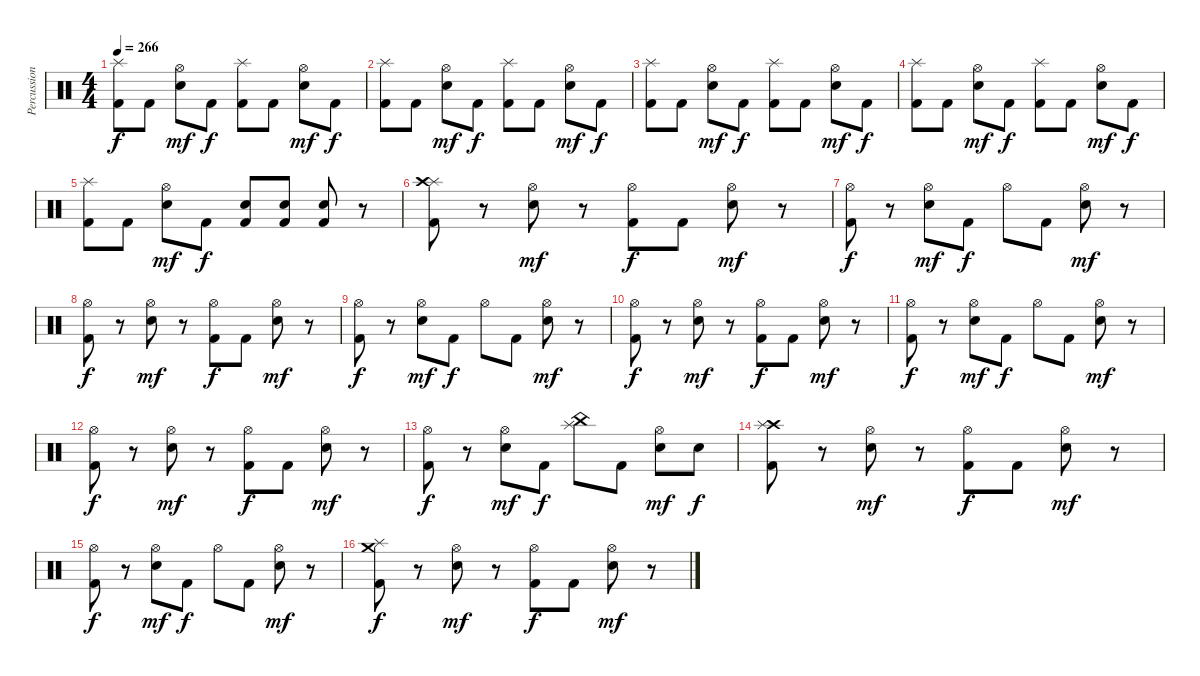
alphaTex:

\track ("Percussion" "Percussion") {instrument percussion}
\staff {score}
\articulation defaults
\ts (4 4)
\tempo 266
\clef neutral
\ks c
("Splash (hit)" "Kick (hit) 2").8{dy f} "Kick (hit) 2".8 ("Hi-Hat (open)" "Snare (hit) 2").8{dy mf} "Kick (hit) 2".8{dy f} ("Kick (hit) 2" "Splash (hit)").8 "Kick (hit) 2".8 ("Hi-Hat (open)" "Snare (hit) 2").8{dy mf} "Kick (hit) 2".8{dy f} |
("Splash (hit)" "Kick (hit) 2").8 "Kick (hit) 2".8 ("Hi-Hat (open)" "Snare (hit) 2").8{dy mf} "Kick (hit) 2".8{dy f} ("Kick (hit) 2" "Splash (hit)").8 "Kick (hit) 2".8 ("Hi-Hat (open)" "Snare (hit) 2").8{dy mf} "Kick (hit) 2".8{dy f} |
("Splash (hit)" "Kick (hit) 2").8 "Kick (hit) 2".8 ("Hi-Hat (open)" "Snare (hit) 2").8{dy mf} "Kick (hit) 2".8{dy f} ("Kick (hit) 2" "Splash (hit)").8 "Kick (hit) 2".8 ("Hi-Hat (open)" "Snare (hit) 2").8{dy mf} "Kick (hit) 2".8{dy f} |
("Splash (hit)" "Kick (hit) 2").8 "Kick (hit) 2".8 ("Hi-Hat (open)" "Snare (hit) 2").8{dy mf} "Kick (hit) 2".8{dy f} ("Kick (hit) 2" "Splash (hit)").8 "Kick (hit) 2".8 ("Hi-Hat (open)" "Snare (hit) 2").8{dy mf} "Kick (hit) 2".8{dy f} |
("Splash (hit)" "Kick (hit) 2").8 "Kick (hit) 2".8 ("Hi-Hat (open)" "Snare (hit) 2").8{dy mf} "Kick (hit) 2".8{dy f} ("Snare (hit) 2" "Kick (hit) 2").8 ("Snare (hit) 2" "Kick (hit) 2").8 ("Kick (hit) 2" "Snare (hit) 2").8 r.8 |
("Splash (hit)" "Crash high (hit)" "Kick (hit) 2").8 r.8 ("Snare (hit) 2" "Hi-Hat (open)").8{dy mf} r.8 ("Hi-Hat (open)" "Kick (hit) 2").8{dy f} "Kick (hit) 2".8 ("Hi-Hat (open)" "Snare (hit) 2").8{dy mf} r.8 |
("Kick (hit) 2" "Hi-Hat (open)").8{dy f} r.8 ("Snare (hit) 2" "Hi-Hat (open)").8{dy mf} "Kick (hit) 2".8{dy f} "Hi-Hat (open)".8 "Kick (hit) 2".8 ("Snare (hit) 2" "Hi-Hat (open)").8{dy mf} r.8 |
("Hi-Hat (open)" "Kick (hit) 2").8{dy f} r.8 ("Snare (hit) 2" "Hi-Hat (open)").8{dy mf} r.8 ("Hi-Hat (open)" "Kick (hit) 2").8{dy f} "Kick (hit) 2".8 ("Hi-Hat (open)" "Snare (hit) 2").8{dy mf} r.8 |
("Kick (hit) 2" "Hi-Hat (open)").8{dy f} r.8 ("Snare (hit) 2" "Hi-Hat (open)").8{dy mf} "Kick (hit) 2".8{dy f} "Hi-Hat (open)".8 "Kick (hit) 2".8 ("Snare (hit) 2" "Hi-Hat (open)").8{dy mf} r.8 |
("Hi-Hat (open)" "Kick (hit) 2").8{dy f} r.8 ("Snare (hit) 2" "Hi-Hat (open)").8{dy mf} r.8 ("Hi-Hat (open)" "Kick (hit) 2").8{dy f} "Kick (hit) 2".8 ("Hi-Hat (open)" "Snare (hit) 2").8{dy mf} r.8 |
("Kick (hit) 2" "Hi-Hat (open)").8{dy f} r.8 ("Snare (hit) 2" "Hi-Hat (open)").8{dy mf} "Kick (hit) 2".8{dy f} "Hi-Hat (open)".8 "Kick (hit) 2".8 ("Snare (hit) 2" "Hi-Hat (open)").8{dy mf} r.8 |
("Hi-Hat (open)" "Kick (hit) 2").8{dy f} r.8 ("Snare (hit) 2" "Hi-Hat (open)").8{dy mf} r.8 ("Hi-Hat (open)" "Kick (hit) 2").8{dy f} "Kick (hit) 2".8 ("Hi-Hat (open)" "Snare (hit) 2").8{dy mf} r.8 |
("Kick (hit) 2" "Hi-Hat (open)").8{dy f} r.8 ("Snare (hit) 2" "Hi-Hat (open)").8{dy mf} "Kick (hit) 2".8{dy f} ("Splash (hit)" "China (hit)").8 "Kick (hit) 2".8 ("Snare (hit) 2" "Hi-Hat (open)").8{dy mf} "Snare (hit) 2".8{dy f} |
("Crash high (hit)" "Splash (hit)" "Kick (hit) 2").8 r.8 ("Snare (hit) 2" "Hi-Hat (open)").8{dy mf} r.8 ("Kick (hit) 2" "Hi-Hat (open)").8{dy f} "Kick (hit) 2".8 ("Snare (hit) 2" "Hi-Hat (open)").8{dy mf} r.8 |
("Kick (hit) 2" "Hi-Hat (open)").8{dy f} r.8 ("Snare (hit) 2" "Hi-Hat (open)").8{dy mf} "Kick (hit) 2".8{dy f} "Hi-Hat (open)".8 "Kick (hit) 2".8 ("Snare (hit) 2" "Hi-Hat (open)").8{dy mf} r.8 |
("Crash medium (hit)" "Splash (hit)" "Kick (hit) 2").8{dy f} r.8 ("Snare (hit) 2" "Hi-Hat (open)").8{dy mf} r.8 ("Kick (hit) 2" "Hi-Hat (open)").8{dy f} "Kick (hit) 2".8 ("Snare (hit) 2" "Hi-Hat (open)").8{dy mf} r.8
